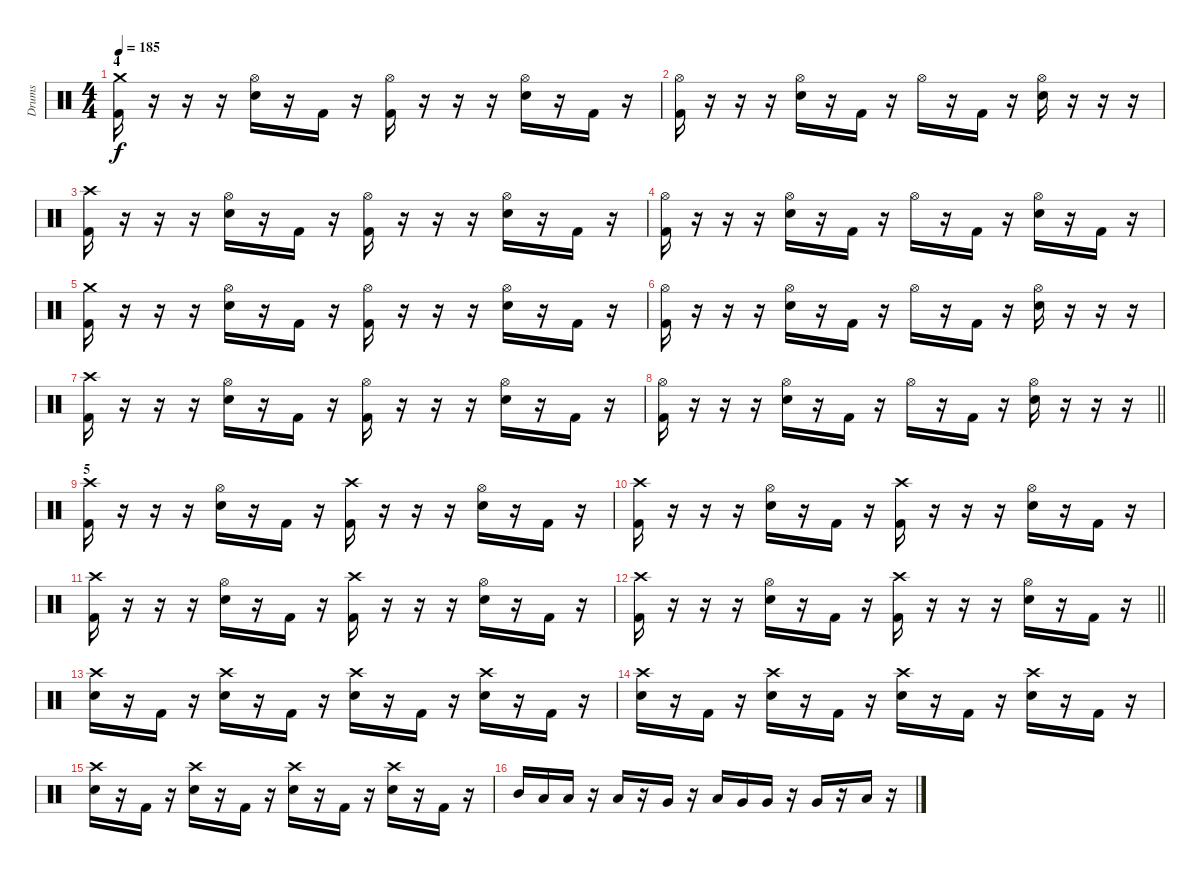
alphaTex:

\track ("Drums" "Drums") {instrument percussion}
\staff {score}
\articulation defaults
\ts (4 4)
\section ("" "4")
\tempo 185
\clef neutral
\ks c
("Crash medium (hit)" "Kick (hit) 2").16{dy f} r.16 r.16 r.16 ("Hi-Hat (open)" "Electric Snare (hit)").16 r.16 "Kick (hit) 2".16 r.16 ("Hi-Hat (open)" "Kick (hit) 2").16 r.16 r.16 r.16 ("Hi-Hat (open)" "Electric Snare (hit)").16 r.16 "Kick (hit) 2".16 r.16 |
("Hi-Hat (open)" "Kick (hit) 2").16 r.16 r.16 r.16 ("Hi-Hat (open)" "Electric Snare (hit)").16 r.16 "Kick (hit) 2".16 r.16 "Hi-Hat (open)".16 r.16 "Kick (hit) 2".16 r.16 ("Hi-Hat (open)" "Electric Snare (hit)").16 r.16 r.16 r.16 |
("Crash high (hit)" "Kick (hit) 2").16 r.16 r.16 r.16 ("Hi-Hat (open)" "Electric Snare (hit)").16 r.16 "Kick (hit) 2".16 r.16 ("Hi-Hat (open)" "Kick (hit) 2").16 r.16 r.16 r.16 ("Hi-Hat (open)" "Electric Snare (hit)").16 r.16 "Kick (hit) 2".16 r.16 |
("Hi-Hat (open)" "Kick (hit) 2").16 r.16 r.16 r.16 ("Hi-Hat (open)" "Electric Snare (hit)").16 r.16 "Kick (hit) 2".16 r.16 "Hi-Hat (open)".16 r.16 "Kick (hit) 2".16 r.16 ("Hi-Hat (open)" "Electric Snare (hit)").16 r.16 "Kick (hit) 2".16 r.16 |
("Crash medium (hit)" "Kick (hit) 2").16 r.16 r.16 r.16 ("Hi-Hat (open)" "Electric Snare (hit)").16 r.16 "Kick (hit) 2".16 r.16 ("Hi-Hat (open)" "Kick (hit) 2").16 r.16 r.16 r.16 ("Hi-Hat (open)" "Electric Snare (hit)").16 r.16 "Kick (hit) 2".16 r.16 |
("Hi-Hat (open)" "Kick (hit) 2").16 r.16 r.16 r.16 ("Hi-Hat (open)" "Electric Snare (hit)").16 r.16 "Kick (hit) 2".16 r.16 "Hi-Hat (open)".16 r.16 "Kick (hit) 2".16 r.16 ("Hi-Hat (open)" "Electric Snare (hit)").16 r.16 r.16 r.16 |
("Crash high (hit)" "Kick (hit) 2").16 r.16 r.16 r.16 ("Hi-Hat (open)" "Electric Snare (hit)").16 r.16 "Kick (hit) 2".16 r.16 ("Hi-Hat (open)" "Kick (hit) 2").16 r.16 r.16 r.16 ("Hi-Hat (open)" "Electric Snare (hit)").16 r.16 "Kick (hit) 2".16 r.16 |
\barLineRight lightlight
("Hi-Hat (open)" "Kick (hit) 2").16 r.16 r.16 r.16 ("Hi-Hat (open)" "Electric Snare (hit)").16 r.16 "Kick (hit) 2".16 r.16 "Hi-Hat (open)".16 r.16 "Kick (hit) 2".16 r.16 ("Hi-Hat (open)" "Electric Snare (hit)").16 r.16 r.16 r.16 |
\section ("" "5")
("Crash high (hit)" "Kick (hit) 2").16 r.16 r.16 r.16 ("Hi-Hat (open)" "Electric Snare (hit)").16 r.16 "Kick (hit) 2".16 r.16 ("Crash high (hit)" "Kick (hit) 2").16 r.16 r.16 r.16 ("Hi-Hat (open)" "Electric Snare (hit)").16 r.16 "Kick (hit) 2".16 r.16 |
("Crash high (hit)" "Kick (hit) 2").16 r.16 r.16 r.16 ("Hi-Hat (open)" "Electric Snare (hit)").16 r.16 "Kick (hit) 2".16 r.16 ("Crash high (hit)" "Kick (hit) 2").16 r.16 r.16 r.16 ("Hi-Hat (open)" "Electric Snare (hit)").16 r.16 "Kick (hit) 2".16 r.16 |
("Crash high (hit)" "Kick (hit) 2").16 r.16 r.16 r.16 ("Hi-Hat (open)" "Electric Snare (hit)").16 r.16 "Kick (hit) 2".16 r.16 ("Crash high (hit)" "Kick (hit) 2").16 r.16 r.16 r.16 ("Hi-Hat (open)" "Electric Snare (hit)").16 r.16 "Kick (hit) 2".16 r.16 |
\barLineRight lightlight
("Crash high (hit)" "Kick (hit) 2").16 r.16 r.16 r.16 ("Hi-Hat (open)" "Electric Snare (hit)").16 r.16 "Kick (hit) 2".16 r.16 ("Crash high (hit)" "Kick (hit) 2").16 r.16 r.16 r.16 ("Hi-Hat (open)" "Electric Snare (hit)").16 r.16 "Kick (hit) 2".16 r.16 |
\section ("" "")
("Crash high (hit)" "Electric Snare (hit)").16 r.16 "Kick (hit) 2".16 r.16 ("Crash high (hit)" "Electric Snare (hit)").16 r.16 "Kick (hit) 2".16 r.16 ("Crash high (hit)" "Electric Snare (hit)").16 r.16 "Kick (hit) 2".16 r.16 ("Crash high (hit)" "Electric Snare (hit)").16 r.16 "Kick (hit) 2".16 r.16 |
("Crash high (hit)" "Electric Snare (hit)").16 r.16 "Kick (hit) 2".16 r.16 ("Crash high (hit)" "Electric Snare (hit)").16 r.16 "Kick (hit) 2".16 r.16 ("Crash high (hit)" "Electric Snare (hit)").16 r.16 "Kick (hit) 2".16 r.16 ("Crash high (hit)" "Electric Snare (hit)").16 r.16 "Kick (hit) 2".16 r.16 |
("Crash high (hit)" "Electric Snare (hit)").16 r.16 "Kick (hit) 2".16 r.16 ("Crash high (hit)" "Electric Snare (hit)").16 r.16 "Kick (hit) 2".16 r.16 ("Crash high (hit)" "Electric Snare (hit)").16 r.16 "Kick (hit) 2".16 r.16 ("Crash high (hit)" "Electric Snare (hit)").16 r.16 "Kick (hit) 2".16 r.16 |
"Mid Tom (hit)".16 "Low Tom (hit)".16 "Low Tom (hit)".16 r.16 "Low Tom (hit)".16 r.16 "Very Low Tom (hit)".16 r.16 "Low Tom (hit)".16 "Very Low Tom (hit)".16 "Very Low Tom (hit)".16 r.16 "Very Low Tom (hit)".16 r.16 "Low Floor Tom (hit)".16 r.16
